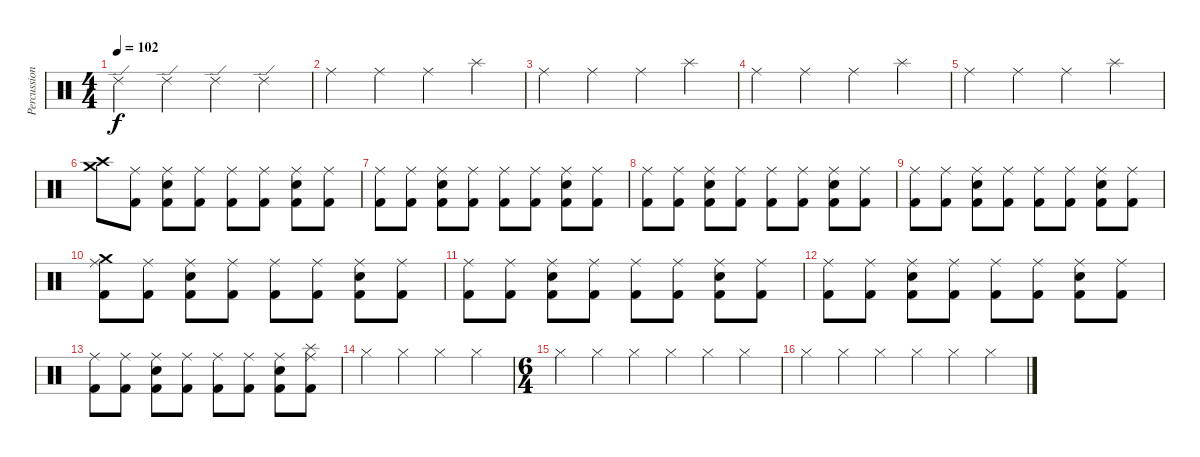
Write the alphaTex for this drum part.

\track ("Percussions" "Percussion") {instrument percussion}
\staff {score}
\articulation defaults
\ts (4 4)
\tempo 102
\clef neutral
\ks c "Ride (edge) 2".4{dy f} "Ride (edge) 2".4 "Ride (edge) 2".4 "Ride (edge) 2".4
|
"Ride (middle)".4 "Ride (middle)".4 "Ride (middle)".4 "Splash (hit)".4 |
"Ride (middle)".4 "Ride (middle)".4 "Ride (middle)".4 "Splash (hit)".4 |
"Ride (middle)".4 "Ride (middle)".4 "Ride (middle)".4 "Splash (hit)".4 |
"Ride (middle)".4 "Ride (middle)".4 "Ride (middle)".4 "Splash (hit)".4 |
("Crash medium (hit)" "Crash high (hit)").8 ("Ride (middle)" "Kick (hit) 2").8 ("Electric Snare (hit)" "Ride (middle)" "Kick (hit) 2").8 ("Ride (middle)" "Kick (hit) 2").8 ("Ride (middle)" "Kick (hit) 2").8 ("Ride (middle)" "Kick (hit) 2").8 ("Electric Snare (hit)" "Ride (middle)" "Kick (hit) 2").8 ("Ride (middle)" "Kick (hit) 2").8 |
("Ride (middle)" "Kick (hit) 2").8 ("Ride (middle)" "Kick (hit) 2").8 ("Electric Snare (hit)" "Ride (middle)" "Kick (hit) 2").8 ("Ride (middle)" "Kick (hit) 2").8 ("Ride (middle)" "Kick (hit) 2").8 ("Ride (middle)" "Kick (hit) 2").8 ("Electric Snare (hit)" "Ride (middle)" "Kick (hit) 2").8 ("Ride (middle)" "Kick (hit) 2").8 |
("Ride (middle)" "Kick (hit) 2").8 ("Ride (middle)" "Kick (hit) 2").8 ("Electric Snare (hit)" "Ride (middle)" "Kick (hit) 2").8 ("Ride (middle)" "Kick (hit) 2").8 ("Ride (middle)" "Kick (hit) 2").8 ("Ride (middle)" "Kick (hit) 2").8 ("Electric Snare (hit)" "Ride (middle)" "Kick (hit) 2").8 ("Ride (middle)" "Kick (hit) 2").8 |
("Ride (middle)" "Kick (hit) 2").8 ("Ride (middle)" "Kick (hit) 2").8 ("Electric Snare (hit)" "Ride (middle)" "Kick (hit) 2").8 ("Ride (middle)" "Kick (hit) 2").8 ("Ride (middle)" "Kick (hit) 2").8 ("Ride (middle)" "Kick (hit) 2").8 ("Electric Snare (hit)" "Ride (middle)" "Kick (hit) 2").8 ("Ride (middle)" "Kick (hit) 2").8 |
("Crash medium (hit)" "Ride (middle)" "Kick (hit) 2").8 ("Ride (middle)" "Kick (hit) 2").8 ("Electric Snare (hit)" "Ride (middle)" "Kick (hit) 2").8 ("Ride (middle)" "Kick (hit) 2").8 ("Ride (middle)" "Kick (hit) 2").8 ("Ride (middle)" "Kick (hit) 2").8 ("Electric Snare (hit)" "Ride (middle)" "Kick (hit) 2").8 ("Ride (middle)" "Kick (hit) 2").8 |
("Ride (middle)" "Kick (hit) 2").8 ("Ride (middle)" "Kick (hit) 2").8 ("Electric Snare (hit)" "Ride (middle)" "Kick (hit) 2").8 ("Ride (middle)" "Kick (hit) 2").8 ("Ride (middle)" "Kick (hit) 2").8 ("Ride (middle)" "Kick (hit) 2").8 ("Electric Snare (hit)" "Ride (middle)" "Kick (hit) 2").8 ("Ride (middle)" "Kick (hit) 2").8 |
("Ride (middle)" "Kick (hit) 2").8 ("Ride (middle)" "Kick (hit) 2").8 ("Electric Snare (hit)" "Ride (middle)" "Kick (hit) 2").8 ("Ride (middle)" "Kick (hit) 2").8 ("Ride (middle)" "Kick (hit) 2").8 ("Ride (middle)" "Kick (hit) 2").8 ("Electric Snare (hit)" "Ride (middle)" "Kick (hit) 2").8 ("Ride (middle)" "Kick (hit) 2").8 |
("Ride (middle)" "Kick (hit) 2").8 ("Ride (middle)" "Kick (hit) 2").8 ("Electric Snare (hit)" "Ride (middle)" "Kick (hit) 2").8 ("Ride (middle)" "Kick (hit) 2").8 ("Ride (middle)" "Kick (hit) 2").8 ("Ride (middle)" "Kick (hit) 2").8 ("Electric Snare (hit)" "Ride (middle)" "Kick (hit) 2").8 ("Splash (hit)" "Ride (middle)" "Kick (hit) 2").8 |
"Hi-Hat (closed)".4 "Hi-Hat (closed)".4 "Hi-Hat (closed)".4 "Hi-Hat (closed)".4 |
\ts (6 4)
"Hi-Hat (closed)".4 "Hi-Hat (closed)".4 "Hi-Hat (closed)".4 "Hi-Hat (closed)".4 "Hi-Hat (closed)".4 "Hi-Hat (closed)".4 |
"Hi-Hat (closed)".4 "Hi-Hat (closed)".4 "Hi-Hat (closed)".4 "Hi-Hat (closed)".4 "Hi-Hat (closed)".4 "Hi-Hat (closed)".4
